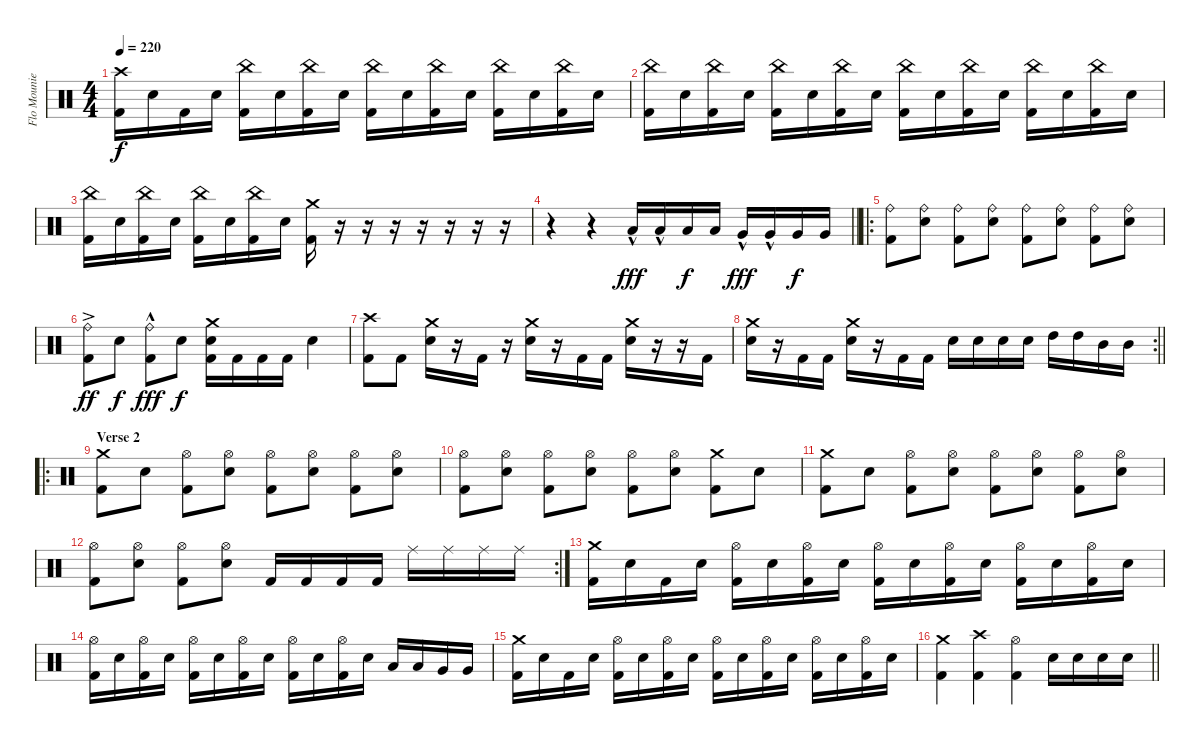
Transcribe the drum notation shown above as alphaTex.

\track ("Flo Mounier" "Flo Mounie") {instrument percussion}
\staff {score}
\articulation defaults
\ts (4 4)
\tempo 220
\clef neutral
\ks c
("Crash high (hit)" "Kick (hit) 2").16{dy f} "Electric Snare (hit)".16 "Kick (hit) 2".16 "Electric Snare (hit)".16 ("China (hit)" "Kick (hit) 2").16 "Electric Snare (hit)".16 ("China (hit)" "Kick (hit) 2").16 "Electric Snare (hit)".16 ("China (hit)" "Kick (hit) 2").16 "Electric Snare (hit)".16 ("China (hit)" "Kick (hit) 2").16 "Electric Snare (hit)".16 ("China (hit)" "Kick (hit) 2").16 "Electric Snare (hit)".16 ("China (hit)" "Kick (hit) 2").16 "Electric Snare (hit)".16 |
("China (hit)" "Kick (hit) 2").16 "Electric Snare (hit)".16 ("China (hit)" "Kick (hit) 2").16 "Electric Snare (hit)".16 ("China (hit)" "Kick (hit) 2").16 "Electric Snare (hit)".16 ("China (hit)" "Kick (hit) 2").16 "Electric Snare (hit)".16 ("China (hit)" "Kick (hit) 2").16 "Electric Snare (hit)".16 ("China (hit)" "Kick (hit) 2").16 "Electric Snare (hit)".16 ("China (hit)" "Kick (hit) 2").16 "Electric Snare (hit)".16 ("China (hit)" "Kick (hit) 2").16 "Electric Snare (hit)".16 |
("China (hit)" "Kick (hit) 2").16 "Electric Snare (hit)".16 ("China (hit)" "Kick (hit) 2").16 "Electric Snare (hit)".16 ("China (hit)" "Kick (hit) 2").16 "Electric Snare (hit)".16 ("China (hit)" "Kick (hit) 2").16 "Electric Snare (hit)".16 ("Crash medium (hit)" "Kick (hit) 2").16 r.16 r.16 r.16 r.16 r.16 r.16 r.16 |
\barLineRight lightlight
r.4 r.4 "Low Tom (hit)"{hac}.16{dy fff} "Low Tom (hit)"{hac}.16 "Low Tom (hit)".16{dy f} "Low Tom (hit)".16 "Very Low Tom (hit)"{hac}.16{dy fff} "Very Low Tom (hit)"{hac}.16 "Very Low Tom (hit)".16{dy f} "Very Low Tom (hit)".16 |
\ro
("Ride (bell)" "Kick (hit) 2").8 ("Ride (bell)" "Electric Snare (hit)").8 ("Ride (bell)" "Kick (hit) 2").8 ("Ride (bell)" "Electric Snare (hit)").8 ("Ride (bell)" "Kick (hit) 2").8 ("Ride (bell)" "Electric Snare (hit)").8 ("Ride (bell)" "Kick (hit) 2").8 ("Ride (bell)" "Electric Snare (hit)").8 |
("Ride (bell)"{ac} "Kick (hit) 2").8{dy ff} "Electric Snare (hit)".8{dy f} ("Ride (bell)"{hac} "Kick (hit) 2").8{dy fff} "Electric Snare (hit)".8{dy f} ("Crash medium (hit)" "Electric Snare (hit)" "Kick (hit) 2").16 "Kick (hit) 2".16 "Kick (hit) 2".16 "Kick (hit) 2".16 "Electric Snare (hit)".4 |
("Crash high (hit)" "Kick (hit) 2").8 "Kick (hit) 2".8 ("Crash medium (hit)" "Electric Snare (hit)").16 r.16 "Kick (hit) 2".16 r.16 ("Crash medium (hit)" "Electric Snare (hit)").16 r.16 "Kick (hit) 2".16 "Kick (hit) 2".16 ("Crash medium (hit)" "Electric Snare (hit)").16 r.16 r.16 "Kick (hit) 2".16 |
\rc 2
\barLineRight lightlight
("Crash medium (hit)" "Electric Snare (hit)").16 r.16 "Kick (hit) 2".16 "Kick (hit) 2".16 ("Crash medium (hit)" "Electric Snare (hit)").16 r.16 "Kick (hit) 2".16 "Kick (hit) 2".16 "Electric Snare (hit)".16 "Electric Snare (hit)".16 "Electric Snare (hit)".16 "Electric Snare (hit)".16 "High Tom (hit)".16 "High Tom (hit)".16 "Mid Tom (hit)".16 "Mid Tom (hit)".16 |
\ro
\section ("" "Verse 2")
("Crash medium (hit)" "Kick (hit) 2").8 "Electric Snare (hit)".8 ("Hi-Hat (open)" "Kick (hit) 2").8 ("Hi-Hat (open)" "Electric Snare (hit)").8 ("Hi-Hat (open)" "Kick (hit) 2").8 ("Hi-Hat (open)" "Electric Snare (hit)").8 ("Hi-Hat (open)" "Kick (hit) 2").8 ("Hi-Hat (open)" "Electric Snare (hit)").8 |
("Hi-Hat (open)" "Kick (hit) 2").8 ("Hi-Hat (open)" "Electric Snare (hit)").8 ("Hi-Hat (open)" "Kick (hit) 2").8 ("Hi-Hat (open)" "Electric Snare (hit)").8 ("Hi-Hat (open)" "Kick (hit) 2").8 ("Hi-Hat (open)" "Electric Snare (hit)").8 ("Crash medium (hit)" "Kick (hit) 2").8 "Electric Snare (hit)".8 |
("Crash medium (hit)" "Kick (hit) 2").8 "Electric Snare (hit)".8 ("Hi-Hat (open)" "Kick (hit) 2").8 ("Hi-Hat (open)" "Electric Snare (hit)").8 ("Hi-Hat (open)" "Kick (hit) 2").8 ("Hi-Hat (open)" "Electric Snare (hit)").8 ("Hi-Hat (open)" "Kick (hit) 2").8 ("Hi-Hat (open)" "Electric Snare (hit)").8 |
\rc 2
("Hi-Hat (open)" "Kick (hit) 2").8 ("Hi-Hat (open)" "Electric Snare (hit)").8 ("Hi-Hat (open)" "Kick (hit) 2").8 ("Hi-Hat (open)" "Electric Snare (hit)").8 "Kick (hit) 2".16 "Kick (hit) 2".16 "Kick (hit) 2".16 "Kick (hit) 2".16 "Ride (middle)".16 "Ride (middle)".16 "Ride (middle)".16 "Ride (middle)".16 |
("Crash medium (hit)" "Kick (hit) 2").16 "Electric Snare (hit)".16 "Kick (hit) 2".16 "Electric Snare (hit)".16 ("Hi-Hat (open)" "Kick (hit) 2").16 "Electric Snare (hit)".16 ("Hi-Hat (open)" "Kick (hit) 2").16 "Electric Snare (hit)".16 ("Hi-Hat (open)" "Kick (hit) 2").16 "Electric Snare (hit)".16 ("Hi-Hat (open)" "Kick (hit) 2").16 "Electric Snare (hit)".16 ("Hi-Hat (open)" "Kick (hit) 2").16 "Electric Snare (hit)".16 ("Hi-Hat (open)" "Kick (hit) 2").16 "Electric Snare (hit)".16 |
("Hi-Hat (open)" "Kick (hit) 2").16 "Electric Snare (hit)".16 ("Hi-Hat (open)" "Kick (hit) 2").16 "Electric Snare (hit)".16 ("Hi-Hat (open)" "Kick (hit) 2").16 "Electric Snare (hit)".16 ("Hi-Hat (open)" "Kick (hit) 2").16 "Electric Snare (hit)".16 ("Hi-Hat (open)" "Kick (hit) 2").16 "Electric Snare (hit)".16 ("Hi-Hat (open)" "Kick (hit) 2").16 "Electric Snare (hit)".16 "Low Tom (hit)".16 "Low Tom (hit)".16 "Very Low Tom (hit)".16 "Very Low Tom (hit)".16 |
("Crash medium (hit)" "Kick (hit) 2").16 "Electric Snare (hit)".16 "Kick (hit) 2".16 "Electric Snare (hit)".16 ("Hi-Hat (open)" "Kick (hit) 2").16 "Electric Snare (hit)".16 ("Hi-Hat (open)" "Kick (hit) 2").16 "Electric Snare (hit)".16 ("Hi-Hat (open)" "Kick (hit) 2").16 "Electric Snare (hit)".16 ("Hi-Hat (open)" "Kick (hit) 2").16 "Electric Snare (hit)".16 ("Hi-Hat (open)" "Kick (hit) 2").16 "Electric Snare (hit)".16 ("Hi-Hat (open)" "Kick (hit) 2").16 "Electric Snare (hit)".16 |
\barLineRight lightlight
("Crash medium (hit)" "Kick (hit) 2").4 ("Crash high (hit)" "Kick (hit) 2").4 ("Hi-Hat (open)" "Kick (hit) 2").4 "Electric Snare (hit)".16 "Electric Snare (hit)".16 "Electric Snare (hit)".16 "Electric Snare (hit)".16
